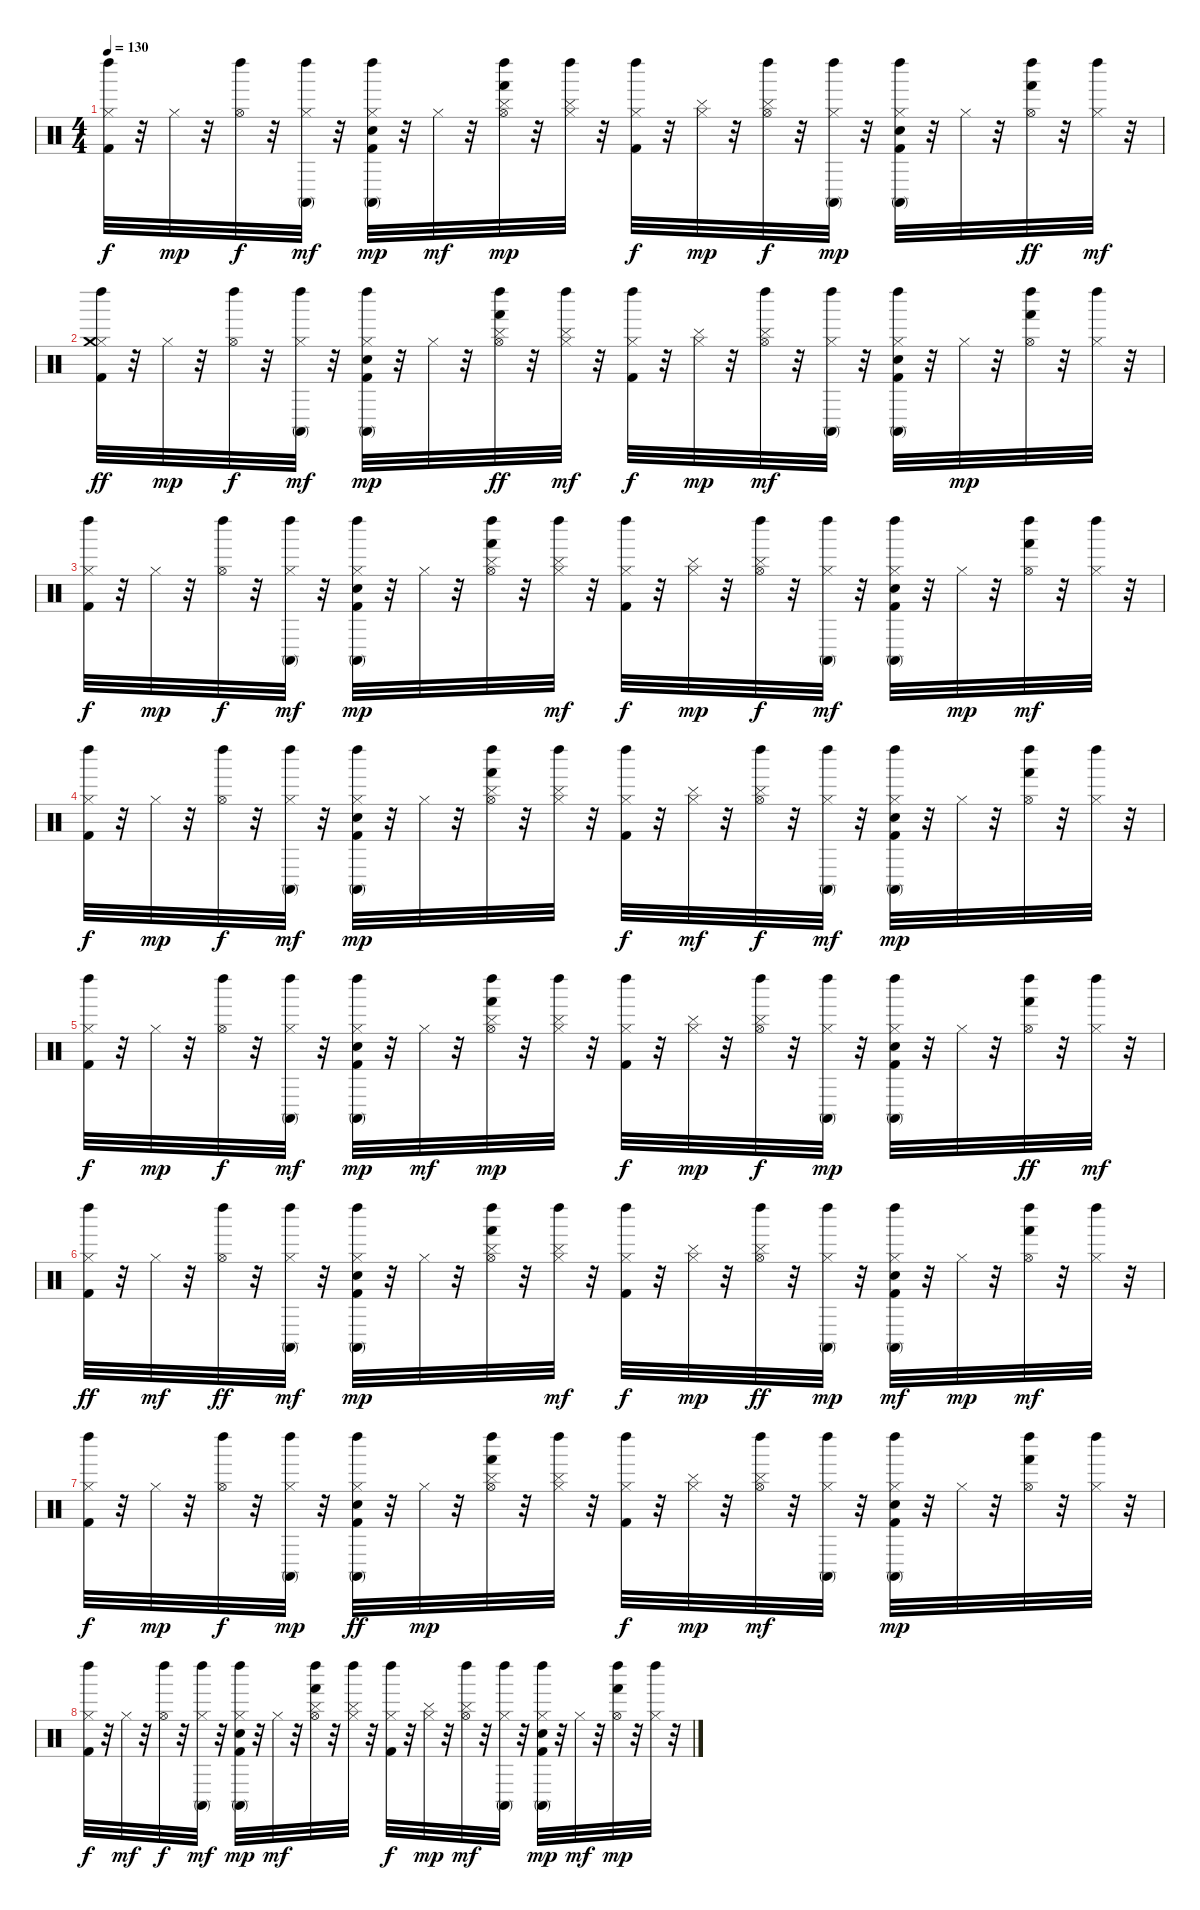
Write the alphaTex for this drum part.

\track "" {instrument percussion}
\staff {score}
\articulation defaults
\ts (4 4)
\tempo 130
\clef neutral
\ks c
("Left Maraca (hit)" "Hi-Hat (closed)" "Kick (hit) 2").32{dy f} r.32 "Hi-Hat (closed)".32{dy mp} r.32 ("Hi-Hat (open)" "Left Maraca (hit)").32{dy f} r.32 ("Conga high (mute)" "Hi-Hat (closed)" "Left Maraca (hit)").32{dy mf} r.32 ("Left Maraca (hit)" "Hand Clap (hit)" "Hi-Hat (closed)" "Kick (hit) 2" "Conga high (mute)").32{dy mp} r.32 "Hi-Hat (closed)".32{dy mf} r.32 ("Hand (hit)" "Left Maraca (hit)" "Cymbal (hit)" "Hi-Hat (open)").32{dy mp} r.32 ("Left Maraca (hit)" "Cymbal (hit)" "Hi-Hat (closed)").32 r.32 ("Left Maraca (hit)" "Kick (hit) 2" "Hi-Hat (closed)").32{dy f} r.32 ("Cymbal (hit)" "Hi-Hat (closed)").32{dy mp} r.32 ("Hi-Hat (open)" "Cymbal (hit)" "Left Maraca (hit)").32{dy f} r.32 ("Conga high (mute)" "Hi-Hat (closed)" "Left Maraca (hit)").32{dy mp} r.32 ("Kick (hit) 2" "Hi-Hat (closed)" "Left Maraca (hit)" "Conga high (mute)" "Hand Clap (hit)").32 r.32 "Hi-Hat (closed)".32 r.32 ("Hand (hit)" "Hi-Hat (open)" "Left Maraca (hit)").32{dy ff} r.32 ("Hi-Hat (closed)" "Left Maraca (hit)").32{dy mf} r.32 |
("Hi-Hat (closed)" "Kick (hit) 2" "Crash medium (hit)" "Left Maraca (hit)").32{dy ff} r.32 "Hi-Hat (closed)".32{dy mp} r.32 ("Hi-Hat (open)" "Left Maraca (hit)").32{dy f} r.32 ("Conga high (mute)" "Hi-Hat (closed)" "Left Maraca (hit)").32{dy mf} r.32 ("Kick (hit) 2" "Hi-Hat (closed)" "Left Maraca (hit)" "Conga high (mute)" "Hand Clap (hit)").32{dy mp} r.32 "Hi-Hat (closed)".32 r.32 ("Hand (hit)" "Cymbal (hit)" "Hi-Hat (open)" "Left Maraca (hit)").32{dy ff} r.32 ("Hi-Hat (closed)" "Cymbal (hit)" "Left Maraca (hit)").32{dy mf} r.32 ("Kick (hit) 2" "Hi-Hat (closed)" "Left Maraca (hit)").32{dy f} r.32 ("Cymbal (hit)" "Hi-Hat (closed)").32{dy mp} r.32 ("Cymbal (hit)" "Hi-Hat (open)" "Left Maraca (hit)").32{dy mf} r.32 ("Conga high (mute)" "Hi-Hat (closed)" "Left Maraca (hit)").32 r.32 ("Hi-Hat (closed)" "Kick (hit) 2" "Left Maraca (hit)" "Hand Clap (hit)" "Conga high (mute)").32 r.32 "Hi-Hat (closed)".32{dy mp} r.32 ("Left Maraca (hit)" "Hi-Hat (open)" "Hand (hit)").32 r.32 ("Left Maraca (hit)" "Hi-Hat (closed)").32 r.32 |
("Left Maraca (hit)" "Hi-Hat (closed)" "Kick (hit) 2").32{dy f} r.32 "Hi-Hat (closed)".32{dy mp} r.32 ("Left Maraca (hit)" "Hi-Hat (open)").32{dy f} r.32 ("Conga high (mute)" "Hi-Hat (closed)" "Left Maraca (hit)").32{dy mf} r.32 ("Left Maraca (hit)" "Hand Clap (hit)" "Hi-Hat (closed)" "Kick (hit) 2" "Conga high (mute)").32{dy mp} r.32 "Hi-Hat (closed)".32 r.32 ("Cymbal (hit)" "Left Maraca (hit)" "Hi-Hat (open)" "Hand (hit)").32 r.32 ("Left Maraca (hit)" "Hi-Hat (closed)" "Cymbal (hit)").32{dy mf} r.32 ("Left Maraca (hit)" "Hi-Hat (closed)" "Kick (hit) 2").32{dy f} r.32 ("Hi-Hat (closed)" "Cymbal (hit)").32{dy mp} r.32 ("Hi-Hat (open)" "Left Maraca (hit)" "Cymbal (hit)").32{dy f} r.32 ("Hi-Hat (closed)" "Left Maraca (hit)" "Conga high (mute)").32{dy mf} r.32 ("Hi-Hat (closed)" "Kick (hit) 2" "Conga high (mute)" "Hand Clap (hit)" "Left Maraca (hit)").32 r.32 "Hi-Hat (closed)".32{dy mp} r.32 ("Hand (hit)" "Hi-Hat (open)" "Left Maraca (hit)").32{dy mf} r.32 ("Hi-Hat (closed)" "Left Maraca (hit)").32 r.32 |
("Hi-Hat (closed)" "Kick (hit) 2" "Left Maraca (hit)").32{dy f} r.32 "Hi-Hat (closed)".32{dy mp} r.32 ("Left Maraca (hit)" "Hi-Hat (open)").32{dy f} r.32 ("Conga high (mute)" "Hi-Hat (closed)" "Left Maraca (hit)").32{dy mf} r.32 ("Conga high (mute)" "Hi-Hat (closed)" "Kick (hit) 2" "Left Maraca (hit)" "Hand Clap (hit)").32{dy mp} r.32 "Hi-Hat (closed)".32 r.32 ("Cymbal (hit)" "Left Maraca (hit)" "Hand (hit)" "Hi-Hat (open)").32 r.32 ("Cymbal (hit)" "Hi-Hat (closed)" "Left Maraca (hit)").32 r.32 ("Hi-Hat (closed)" "Kick (hit) 2" "Left Maraca (hit)").32{dy f} r.32 ("Hi-Hat (closed)" "Cymbal (hit)").32{dy mf} r.32 ("Cymbal (hit)" "Left Maraca (hit)" "Hi-Hat (open)").32{dy f} r.32 ("Hi-Hat (closed)" "Conga high (mute)" "Left Maraca (hit)").32{dy mf} r.32 ("Conga high (mute)" "Kick (hit) 2" "Hi-Hat (closed)" "Hand Clap (hit)" "Left Maraca (hit)").32{dy mp} r.32 "Hi-Hat (closed)".32 r.32 ("Hi-Hat (open)" "Left Maraca (hit)" "Hand (hit)").32 r.32 ("Left Maraca (hit)" "Hi-Hat (closed)").32 r.32 |
("Left Maraca (hit)" "Hi-Hat (closed)" "Kick (hit) 2").32{dy f} r.32 "Hi-Hat (closed)".32{dy mp} r.32 ("Hi-Hat (open)" "Left Maraca (hit)").32{dy f} r.32 ("Conga high (mute)" "Hi-Hat (closed)" "Left Maraca (hit)").32{dy mf} r.32 ("Left Maraca (hit)" "Hand Clap (hit)" "Hi-Hat (closed)" "Kick (hit) 2" "Conga high (mute)").32{dy mp} r.32 "Hi-Hat (closed)".32{dy mf} r.32 ("Hand (hit)" "Left Maraca (hit)" "Cymbal (hit)" "Hi-Hat (open)").32{dy mp} r.32 ("Left Maraca (hit)" "Cymbal (hit)" "Hi-Hat (closed)").32 r.32 ("Left Maraca (hit)" "Kick (hit) 2" "Hi-Hat (closed)").32{dy f} r.32 ("Cymbal (hit)" "Hi-Hat (closed)").32{dy mp} r.32 ("Hi-Hat (open)" "Cymbal (hit)" "Left Maraca (hit)").32{dy f} r.32 ("Conga high (mute)" "Hi-Hat (closed)" "Left Maraca (hit)").32{dy mp} r.32 ("Kick (hit) 2" "Hi-Hat (closed)" "Left Maraca (hit)" "Conga high (mute)" "Hand Clap (hit)").32 r.32 "Hi-Hat (closed)".32 r.32 ("Hand (hit)" "Hi-Hat (open)" "Left Maraca (hit)").32{dy ff} r.32 ("Hi-Hat (closed)" "Left Maraca (hit)").32{dy mf} r.32 |
("Kick (hit) 2" "Hi-Hat (closed)" "Left Maraca (hit)").32{dy ff} r.32 "Hi-Hat (closed)".32{dy mf} r.32 ("Left Maraca (hit)" "Hi-Hat (open)").32{dy ff} r.32 ("Conga high (mute)" "Hi-Hat (closed)" "Left Maraca (hit)").32{dy mf} r.32 ("Kick (hit) 2" "Hi-Hat (closed)" "Conga high (mute)" "Left Maraca (hit)" "Hand Clap (hit)").32{dy mp} r.32 "Hi-Hat (closed)".32 r.32 ("Cymbal (hit)" "Hand (hit)" "Hi-Hat (open)" "Left Maraca (hit)").32 r.32 ("Hi-Hat (closed)" "Cymbal (hit)" "Left Maraca (hit)").32{dy mf} r.32 ("Kick (hit) 2" "Hi-Hat (closed)" "Left Maraca (hit)").32{dy f} r.32 ("Cymbal (hit)" "Hi-Hat (closed)").32{dy mp} r.32 ("Cymbal (hit)" "Hi-Hat (open)" "Left Maraca (hit)").32{dy ff} r.32 ("Hi-Hat (closed)" "Left Maraca (hit)" "Conga high (mute)").32{dy mp} r.32 ("Kick (hit) 2" "Hi-Hat (closed)" "Hand Clap (hit)" "Conga high (mute)" "Left Maraca (hit)").32{dy mf} r.32 "Hi-Hat (closed)".32{dy mp} r.32 ("Hand (hit)" "Left Maraca (hit)" "Hi-Hat (open)").32{dy mf} r.32 ("Left Maraca (hit)" "Hi-Hat (closed)").32 r.32 |
("Left Maraca (hit)" "Hi-Hat (closed)" "Kick (hit) 2").32{dy f} r.32 "Hi-Hat (closed)".32{dy mp} r.32 ("Hi-Hat (open)" "Left Maraca (hit)").32{dy f} r.32 ("Conga high (mute)" "Hi-Hat (closed)" "Left Maraca (hit)").32{dy mp} r.32 ("Conga high (mute)" "Left Maraca (hit)" "Hand Clap (hit)" "Kick (hit) 2" "Hi-Hat (closed)").32{dy ff} r.32 "Hi-Hat (closed)".32{dy mp} r.32 ("Left Maraca (hit)" "Cymbal (hit)" "Hi-Hat (open)" "Hand (hit)").32 r.32 ("Left Maraca (hit)" "Cymbal (hit)" "Hi-Hat (closed)").32 r.32 ("Hi-Hat (closed)" "Kick (hit) 2" "Left Maraca (hit)").32{dy f} r.32 ("Cymbal (hit)" "Hi-Hat (closed)").32{dy mp} r.32 ("Hi-Hat (open)" "Cymbal (hit)" "Left Maraca (hit)").32{dy mf} r.32 ("Hi-Hat (closed)" "Conga high (mute)" "Left Maraca (hit)").32 r.32 ("Conga high (mute)" "Hi-Hat (closed)" "Kick (hit) 2" "Hand Clap (hit)" "Left Maraca (hit)").32{dy mp} r.32 "Hi-Hat (closed)".32 r.32 ("Left Maraca (hit)" "Hand (hit)" "Hi-Hat (open)").32 r.32 ("Hi-Hat (closed)" "Left Maraca (hit)").32 r.32 |
("Hi-Hat (closed)" "Kick (hit) 2" "Left Maraca (hit)").32{dy f} r.32 "Hi-Hat (closed)".32{dy mf} r.32 ("Hi-Hat (open)" "Left Maraca (hit)").32{dy f} r.32 ("Conga high (mute)" "Hi-Hat (closed)" "Left Maraca (hit)").32{dy mf} r.32 ("Hi-Hat (closed)" "Kick (hit) 2" "Left Maraca (hit)" "Hand Clap (hit)" "Conga high (mute)").32{dy mp} r.32 "Hi-Hat (closed)".32{dy mf} r.32 ("Hand (hit)" "Cymbal (hit)" "Hi-Hat (open)" "Left Maraca (hit)").32 r.32 ("Hi-Hat (closed)" "Cymbal (hit)" "Left Maraca (hit)").32 r.32 ("Hi-Hat (closed)" "Kick (hit) 2" "Left Maraca (hit)").32{dy f} r.32 ("Cymbal (hit)" "Hi-Hat (closed)").32{dy mp} r.32 ("Cymbal (hit)" "Left Maraca (hit)" "Hi-Hat (open)").32{dy mf} r.32 ("Conga high (mute)" "Hi-Hat (closed)" "Left Maraca (hit)").32 r.32 ("Hi-Hat (closed)" "Kick (hit) 2" "Conga high (mute)" "Hand Clap (hit)" "Left Maraca (hit)").32{dy mp} r.32 "Hi-Hat (closed)".32{dy mf} r.32 ("Left Maraca (hit)" "Hi-Hat (open)" "Hand (hit)").32{dy mp} r.32 ("Left Maraca (hit)" "Hi-Hat (closed)").32 r.32
